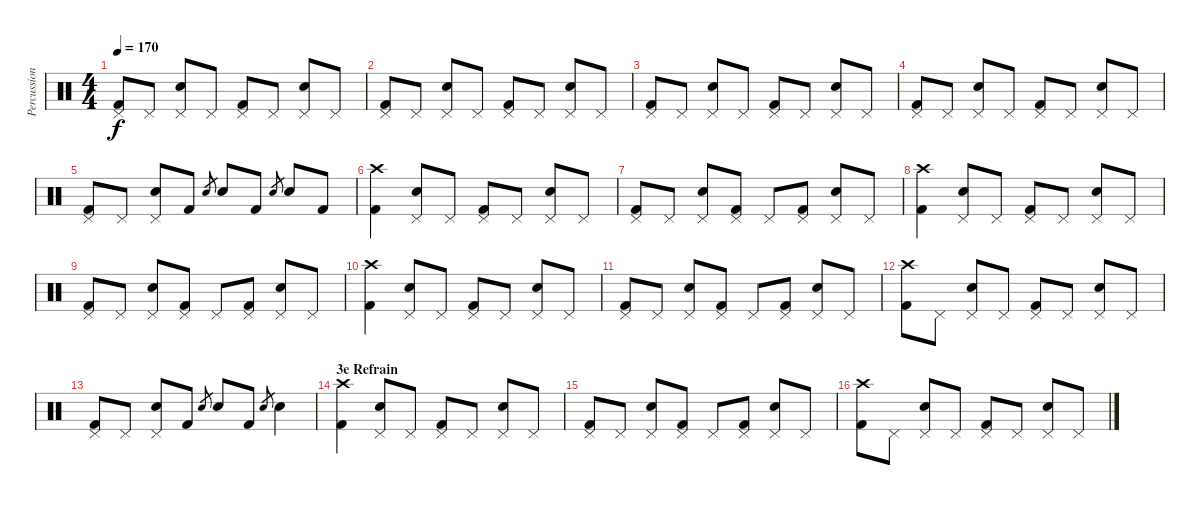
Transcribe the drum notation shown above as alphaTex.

\track ("Percussions" "Percussion") {instrument percussion}
\staff {score}
\articulation defaults
\ts (4 4)
\tempo 170
\clef neutral
\ks c
("Pedal Hi-Hat (hit)" "Kick (hit) 2").8{dy f} "Pedal Hi-Hat (hit)".8 ("Pedal Hi-Hat (hit)" "Electric Snare (hit)").8 "Pedal Hi-Hat (hit)".8 ("Pedal Hi-Hat (hit)" "Kick (hit) 2").8 "Pedal Hi-Hat (hit)".8 ("Pedal Hi-Hat (hit)" "Electric Snare (hit)").8 "Pedal Hi-Hat (hit)".8 |
("Pedal Hi-Hat (hit)" "Kick (hit) 2").8 "Pedal Hi-Hat (hit)".8 ("Pedal Hi-Hat (hit)" "Electric Snare (hit)").8 "Pedal Hi-Hat (hit)".8 ("Pedal Hi-Hat (hit)" "Kick (hit) 2").8 "Pedal Hi-Hat (hit)".8 ("Pedal Hi-Hat (hit)" "Electric Snare (hit)").8 "Pedal Hi-Hat (hit)".8 |
("Pedal Hi-Hat (hit)" "Kick (hit) 2").8 "Pedal Hi-Hat (hit)".8 ("Pedal Hi-Hat (hit)" "Electric Snare (hit)").8 "Pedal Hi-Hat (hit)".8 ("Pedal Hi-Hat (hit)" "Kick (hit) 2").8 "Pedal Hi-Hat (hit)".8 ("Pedal Hi-Hat (hit)" "Electric Snare (hit)").8 "Pedal Hi-Hat (hit)".8 |
("Pedal Hi-Hat (hit)" "Kick (hit) 2").8 "Pedal Hi-Hat (hit)".8 ("Pedal Hi-Hat (hit)" "Electric Snare (hit)").8 "Pedal Hi-Hat (hit)".8 ("Pedal Hi-Hat (hit)" "Kick (hit) 2").8 "Pedal Hi-Hat (hit)".8 ("Pedal Hi-Hat (hit)" "Electric Snare (hit)").8 "Pedal Hi-Hat (hit)".8 |
("Pedal Hi-Hat (hit)" "Kick (hit) 2").8 "Pedal Hi-Hat (hit)".8 ("Pedal Hi-Hat (hit)" "Electric Snare (hit)").8 "Kick (hit) 2".8 "Electric Snare (hit)".8{gr} "Electric Snare (hit)".8 "Kick (hit) 2".8 "Electric Snare (hit)".8{gr} "Electric Snare (hit)".8 "Kick (hit) 2".8 |
("Crash high (hit)" "Kick (hit) 2").4 ("Pedal Hi-Hat (hit)" "Electric Snare (hit)").8 "Pedal Hi-Hat (hit)".8 ("Pedal Hi-Hat (hit)" "Kick (hit) 2").8 "Pedal Hi-Hat (hit)".8 ("Pedal Hi-Hat (hit)" "Electric Snare (hit)").8 "Pedal Hi-Hat (hit)".8 |
("Pedal Hi-Hat (hit)" "Kick (hit) 2").8 "Pedal Hi-Hat (hit)".8 ("Pedal Hi-Hat (hit)" "Electric Snare (hit)").8 ("Pedal Hi-Hat (hit)" "Kick (hit) 2").8 "Pedal Hi-Hat (hit)".8 ("Pedal Hi-Hat (hit)" "Kick (hit) 2").8 ("Pedal Hi-Hat (hit)" "Electric Snare (hit)").8 "Pedal Hi-Hat (hit)".8 |
("Crash high (hit)" "Kick (hit) 2").4 ("Pedal Hi-Hat (hit)" "Electric Snare (hit)").8 "Pedal Hi-Hat (hit)".8 ("Pedal Hi-Hat (hit)" "Kick (hit) 2").8 "Pedal Hi-Hat (hit)".8 ("Pedal Hi-Hat (hit)" "Electric Snare (hit)").8 "Pedal Hi-Hat (hit)".8 |
("Pedal Hi-Hat (hit)" "Kick (hit) 2").8 "Pedal Hi-Hat (hit)".8 ("Pedal Hi-Hat (hit)" "Electric Snare (hit)").8 ("Pedal Hi-Hat (hit)" "Kick (hit) 2").8 "Pedal Hi-Hat (hit)".8 ("Pedal Hi-Hat (hit)" "Kick (hit) 2").8 ("Pedal Hi-Hat (hit)" "Electric Snare (hit)").8 "Pedal Hi-Hat (hit)".8 |
("Crash high (hit)" "Kick (hit) 2").4 ("Pedal Hi-Hat (hit)" "Electric Snare (hit)").8 "Pedal Hi-Hat (hit)".8 ("Pedal Hi-Hat (hit)" "Kick (hit) 2").8 "Pedal Hi-Hat (hit)".8 ("Pedal Hi-Hat (hit)" "Electric Snare (hit)").8 "Pedal Hi-Hat (hit)".8 |
("Pedal Hi-Hat (hit)" "Kick (hit) 2").8 "Pedal Hi-Hat (hit)".8 ("Pedal Hi-Hat (hit)" "Electric Snare (hit)").8 ("Pedal Hi-Hat (hit)" "Kick (hit) 2").8 "Pedal Hi-Hat (hit)".8 ("Pedal Hi-Hat (hit)" "Kick (hit) 2").8 ("Pedal Hi-Hat (hit)" "Electric Snare (hit)").8 "Pedal Hi-Hat (hit)".8 |
("Crash high (hit)" "Kick (hit) 2").8 "Pedal Hi-Hat (hit)".8 ("Pedal Hi-Hat (hit)" "Electric Snare (hit)").8 "Pedal Hi-Hat (hit)".8 ("Pedal Hi-Hat (hit)" "Kick (hit) 2").8 "Pedal Hi-Hat (hit)".8 ("Pedal Hi-Hat (hit)" "Electric Snare (hit)").8 "Pedal Hi-Hat (hit)".8 |
("Pedal Hi-Hat (hit)" "Kick (hit) 2").8 "Pedal Hi-Hat (hit)".8 ("Pedal Hi-Hat (hit)" "Electric Snare (hit)").8 "Kick (hit) 2".8 "Electric Snare (hit)".8{gr} "Electric Snare (hit)".8 "Kick (hit) 2".8 "Electric Snare (hit)".8{gr} "Electric Snare (hit)".4 |
\section ("" "3e Refrain")
("Crash high (hit)" "Kick (hit) 2").4 ("Pedal Hi-Hat (hit)" "Electric Snare (hit)").8 "Pedal Hi-Hat (hit)".8 ("Pedal Hi-Hat (hit)" "Kick (hit) 2").8 "Pedal Hi-Hat (hit)".8 ("Pedal Hi-Hat (hit)" "Electric Snare (hit)").8 "Pedal Hi-Hat (hit)".8 |
("Pedal Hi-Hat (hit)" "Kick (hit) 2").8 "Pedal Hi-Hat (hit)".8 ("Pedal Hi-Hat (hit)" "Electric Snare (hit)").8 ("Pedal Hi-Hat (hit)" "Kick (hit) 2").8 "Pedal Hi-Hat (hit)".8 ("Pedal Hi-Hat (hit)" "Kick (hit) 2").8 ("Pedal Hi-Hat (hit)" "Electric Snare (hit)").8 "Pedal Hi-Hat (hit)".8 |
("Crash high (hit)" "Kick (hit) 2").8 "Pedal Hi-Hat (hit)".8 ("Pedal Hi-Hat (hit)" "Electric Snare (hit)").8 "Pedal Hi-Hat (hit)".8 ("Pedal Hi-Hat (hit)" "Kick (hit) 2").8 "Pedal Hi-Hat (hit)".8 ("Pedal Hi-Hat (hit)" "Electric Snare (hit)").8 "Pedal Hi-Hat (hit)".8
